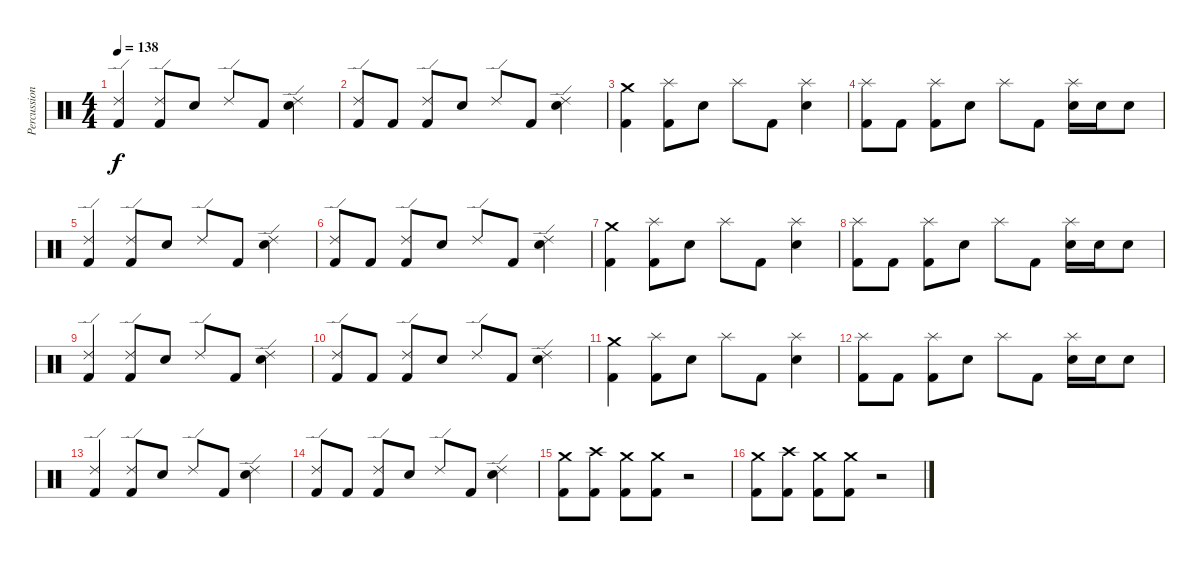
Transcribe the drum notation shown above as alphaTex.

\track ("Percussion" "Percussion") {instrument percussion}
\staff {score}
\articulation defaults
\ts (4 4)
\tempo 138
\clef neutral
\ks c
("Ride (edge) 2" "Kick (hit) 2").4{dy f} ("Ride (edge) 2" "Kick (hit) 2").8 "Snare (hit) 2".8 "Ride (edge) 2".8 "Kick (hit) 2".8 ("Ride (edge) 2" "Snare (hit) 2").4 |
("Ride (edge) 2" "Kick (hit) 2").8 "Kick (hit) 2".8 ("Ride (edge) 2" "Kick (hit) 2").8 "Snare (hit) 2".8 "Ride (edge) 2".8 "Kick (hit) 2".8 ("Ride (edge) 2" "Snare (hit) 2").4 |
("Crash medium (hit)" "Kick (hit) 2").4 ("Splash (hit)" "Kick (hit) 2").8 "Snare (hit) 2".8 "Splash (hit)".8 "Kick (hit) 2".8 ("Splash (hit)" "Snare (hit) 2").4 |
("Splash (hit)" "Kick (hit) 2").8 "Kick (hit) 2".8 ("Splash (hit)" "Kick (hit) 2").8 "Snare (hit) 2".8 "Splash (hit)".8 "Kick (hit) 2".8 ("Splash (hit)" "Snare (hit) 2").16 "Snare (hit) 2".16 "Snare (hit) 2".8 |
("Ride (edge) 2" "Kick (hit) 2").4 ("Ride (edge) 2" "Kick (hit) 2").8 "Snare (hit) 2".8 "Ride (edge) 2".8 "Kick (hit) 2".8 ("Ride (edge) 2" "Snare (hit) 2").4 |
("Ride (edge) 2" "Kick (hit) 2").8 "Kick (hit) 2".8 ("Ride (edge) 2" "Kick (hit) 2").8 "Snare (hit) 2".8 "Ride (edge) 2".8 "Kick (hit) 2".8 ("Ride (edge) 2" "Snare (hit) 2").4 |
("Crash medium (hit)" "Kick (hit) 2").4 ("Splash (hit)" "Kick (hit) 2").8 "Snare (hit) 2".8 "Splash (hit)".8 "Kick (hit) 2".8 ("Splash (hit)" "Snare (hit) 2").4 |
("Splash (hit)" "Kick (hit) 2").8 "Kick (hit) 2".8 ("Splash (hit)" "Kick (hit) 2").8 "Snare (hit) 2".8 "Splash (hit)".8 "Kick (hit) 2".8 ("Splash (hit)" "Snare (hit) 2").16 "Snare (hit) 2".16 "Snare (hit) 2".8 |
("Ride (edge) 2" "Kick (hit) 2").4 ("Ride (edge) 2" "Kick (hit) 2").8 "Snare (hit) 2".8 "Ride (edge) 2".8 "Kick (hit) 2".8 ("Ride (edge) 2" "Snare (hit) 2").4 |
("Ride (edge) 2" "Kick (hit) 2").8 "Kick (hit) 2".8 ("Ride (edge) 2" "Kick (hit) 2").8 "Snare (hit) 2".8 "Ride (edge) 2".8 "Kick (hit) 2".8 ("Ride (edge) 2" "Snare (hit) 2").4 |
("Crash medium (hit)" "Kick (hit) 2").4 ("Splash (hit)" "Kick (hit) 2").8 "Snare (hit) 2".8 "Splash (hit)".8 "Kick (hit) 2".8 ("Splash (hit)" "Snare (hit) 2").4 |
("Splash (hit)" "Kick (hit) 2").8 "Kick (hit) 2".8 ("Splash (hit)" "Kick (hit) 2").8 "Snare (hit) 2".8 "Splash (hit)".8 "Kick (hit) 2".8 ("Splash (hit)" "Snare (hit) 2").16 "Snare (hit) 2".16 "Snare (hit) 2".8 |
("Ride (edge) 2" "Kick (hit) 2").4 ("Ride (edge) 2" "Kick (hit) 2").8 "Snare (hit) 2".8 "Ride (edge) 2".8 "Kick (hit) 2".8 ("Ride (edge) 2" "Snare (hit) 2").4 |
("Ride (edge) 2" "Kick (hit) 2").8 "Kick (hit) 2".8 ("Ride (edge) 2" "Kick (hit) 2").8 "Snare (hit) 2".8 "Ride (edge) 2".8 "Kick (hit) 2".8 ("Ride (edge) 2" "Snare (hit) 2").4 |
("Crash medium (hit)" "Kick (hit) 2").8 ("Crash high (hit)" "Kick (hit) 2").8 ("Crash medium (hit)" "Kick (hit) 2").8 ("Crash medium (hit)" "Kick (hit) 2").8 r.2 |
("Crash medium (hit)" "Kick (hit) 2").8 ("Crash high (hit)" "Kick (hit) 2").8 ("Crash medium (hit)" "Kick (hit) 2").8 ("Crash medium (hit)" "Kick (hit) 2").8 r.2
